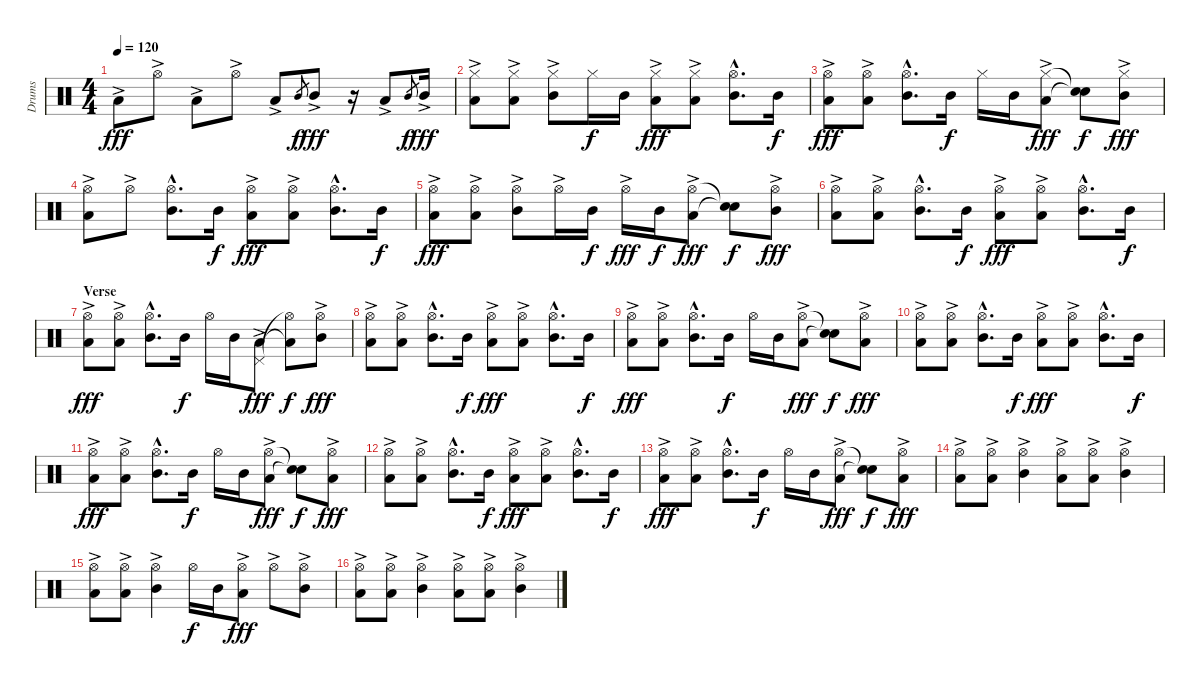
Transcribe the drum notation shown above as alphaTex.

\track ("Drums" "Drums") {instrument percussion}
\staff {score}
\articulation defaults
\ts (4 4)
\tempo 120
\clef neutral
\ks c "Low Floor Tom (hit)"{ac}.8{dy fff} "Hi-Hat (open)"{ac}.8 "Low Floor Tom (hit)"{ac}.8 "Hi-Hat (open)"{ac}.8 "Low Floor Tom (hit)"{ac}.8 "Mid Tom (hit)".8{gr dy f} "Mid Tom (hit)"{ac}.8{dy fff}
r.16 "Low Floor Tom (hit)"{ac}.8 "Mid Tom (hit)".8{gr dy f} "Mid Tom (hit)"{ac}.16{dy fff} |
("Hi-Hat (closed)"{ac} "Low Floor Tom (hit)").8 ("Hi-Hat (closed)"{ac} "Low Floor Tom (hit)").8 ("Hi-Hat (closed)"{ac} "Mid Tom (hit)").8 "Hi-Hat (closed)".16{dy f} "Mid Tom (hit)".16 ("Hi-Hat (closed)"{ac} "Low Floor Tom (hit)").8{dy fff} ("Hi-Hat (closed)"{ac} "Low Floor Tom (hit)").8 ("Hi-Hat (open)"{hac} "Mid Tom (hit)"{hac}).8{d} "Mid Tom (hit)".16{dy f} |
("Hi-Hat (open)"{ac} "Low Floor Tom (hit)").8{dy fff} ("Hi-Hat (open)"{ac} "Low Floor Tom (hit)").8 ("Hi-Hat (open)"{hac} "Mid Tom (hit)"{hac}).8{d} "Mid Tom (hit)".16{dy f} "Hi-Hat (closed)".16 "Mid Tom (hit)".16 ("Hi-Hat (closed)"{ac} "Low Floor Tom (hit)").8{dy fff} ("Snare (hit)"{t} "Snare (hit)"{t}).8{dy f} ("Hi-Hat (closed)"{ac} "Mid Tom (hit)").8{dy fff} |
("Hi-Hat (open)"{ac} "Low Floor Tom (hit)").8 "Hi-Hat (open)"{ac}.8 ("Hi-Hat (open)"{hac} "Mid Tom (hit)"{hac}).8{d} "Mid Tom (hit)".16{dy f} ("Hi-Hat (open)"{ac} "Low Floor Tom (hit)").8{dy fff} ("Hi-Hat (open)"{ac} "Low Floor Tom (hit)").8 ("Hi-Hat (open)"{hac} "Mid Tom (hit)"{hac}).8{d} "Mid Tom (hit)".16{dy f} |
("Hi-Hat (open)"{ac} "Low Floor Tom (hit)").8{dy fff} ("Hi-Hat (open)"{ac} "Low Floor Tom (hit)").8 ("Hi-Hat (open)"{ac} "Mid Tom (hit)").8 "Hi-Hat (open)"{ac}.16 "Mid Tom (hit)".16{dy f} "Hi-Hat (open)"{ac}.16{dy fff} "Mid Tom (hit)".16{dy f} ("Hi-Hat (open)"{ac} "Low Floor Tom (hit)").8{dy fff} ("Snare (hit)"{t} "Snare (hit)"{t}).8{dy f} ("Hi-Hat (open)"{ac} "Mid Tom (hit)").8{dy fff} |
("Hi-Hat (open)"{ac} "Low Floor Tom (hit)").8 ("Hi-Hat (open)"{ac} "Low Floor Tom (hit)").8 ("Hi-Hat (open)"{hac} "Mid Tom (hit)"{hac}).8{d} "Mid Tom (hit)".16{dy f} ("Hi-Hat (open)"{ac} "Low Floor Tom (hit)").8{dy fff} ("Hi-Hat (open)"{ac} "Low Floor Tom (hit)").8 ("Hi-Hat (open)"{hac} "Mid Tom (hit)"{hac}).8{d} "Mid Tom (hit)".16{dy f} |
\section ("" "Verse")
("Hi-Hat (open)"{ac} "Low Floor Tom (hit)").8{dy fff} ("Hi-Hat (open)"{ac} "Low Floor Tom (hit)").8 ("Hi-Hat (open)"{hac} "Mid Tom (hit)"{hac}).8{d} "Mid Tom (hit)".16{dy f} "Hi-Hat (open)".16 "Mid Tom (hit)".16 ("Pedal Hi-Hat (hit)"{ac} "Low Floor Tom (hit)").8{dy fff} ("Hi-Hat (open)"{t} "Low Floor Tom (hit)"{t}).8{dy f} ("Hi-Hat (open)"{ac} "Mid Tom (hit)").8{dy fff} |
("Hi-Hat (open)" "Low Floor Tom (hit)"{ac}).8 ("Hi-Hat (open)" "Low Floor Tom (hit)"{ac}).8 ("Hi-Hat (open)"{hac} "Mid Tom (hit)"{hac}).8{d} "Mid Tom (hit)".16{dy f} ("Hi-Hat (open)" "Low Floor Tom (hit)"{ac}).8{dy fff} ("Hi-Hat (open)" "Low Floor Tom (hit)"{ac}).8 ("Hi-Hat (open)"{hac} "Mid Tom (hit)"{hac}).8{d} "Mid Tom (hit)".16{dy f} |
("Hi-Hat (open)"{ac} "Low Floor Tom (hit)").8{dy fff} ("Hi-Hat (open)"{ac} "Low Floor Tom (hit)").8 ("Hi-Hat (open)"{hac} "Mid Tom (hit)"{hac}).8{d} "Mid Tom (hit)".16{dy f} "Hi-Hat (open)".16 "Mid Tom (hit)".16 ("Hi-Hat (open)"{ac} "Low Floor Tom (hit)").8{dy fff} ("Snare (hit)"{t} "Snare (hit)"{t}).8{dy f} ("Hi-Hat (open)"{ac} "Low Floor Tom (hit)").8{dy fff} |
("Hi-Hat (open)" "Low Floor Tom (hit)"{ac}).8 ("Hi-Hat (open)" "Low Floor Tom (hit)"{ac}).8 ("Hi-Hat (open)"{hac} "Mid Tom (hit)"{hac}).8{d} "Mid Tom (hit)".16{dy f} ("Hi-Hat (open)" "Low Floor Tom (hit)"{ac}).8{dy fff} ("Hi-Hat (open)" "Low Floor Tom (hit)"{ac}).8 ("Hi-Hat (open)"{hac} "Mid Tom (hit)"{hac}).8{d} "Mid Tom (hit)".16{dy f} |
("Hi-Hat (open)"{ac} "Low Floor Tom (hit)").8{dy fff} ("Hi-Hat (open)"{ac} "Low Floor Tom (hit)").8 ("Hi-Hat (open)"{hac} "Mid Tom (hit)"{hac}).8{d} "Mid Tom (hit)".16{dy f} "Hi-Hat (open)".16 "Mid Tom (hit)".16 ("Hi-Hat (open)"{ac} "Low Floor Tom (hit)").8{dy fff} ("Snare (hit)"{t} "Snare (hit)"{t}).8{dy f} ("Hi-Hat (open)"{ac} "Low Floor Tom (hit)").8{dy fff} |
("Hi-Hat (open)" "Low Floor Tom (hit)"{ac}).8 ("Hi-Hat (open)" "Low Floor Tom (hit)"{ac}).8 ("Hi-Hat (open)"{hac} "Mid Tom (hit)"{hac}).8{d} "Mid Tom (hit)".16{dy f} ("Hi-Hat (open)" "Low Floor Tom (hit)"{ac}).8{dy fff} ("Hi-Hat (open)" "Low Floor Tom (hit)"{ac}).8 ("Hi-Hat (open)"{hac} "Mid Tom (hit)"{hac}).8{d} "Mid Tom (hit)".16{dy f} |
("Hi-Hat (open)"{ac} "Low Floor Tom (hit)").8{dy fff} ("Hi-Hat (open)"{ac} "Low Floor Tom (hit)").8 ("Hi-Hat (open)"{hac} "Mid Tom (hit)"{hac}).8{d} "Mid Tom (hit)".16{dy f} "Hi-Hat (open)".16 "Mid Tom (hit)".16 ("Hi-Hat (open)"{ac} "Low Floor Tom (hit)").8{dy fff} ("Snare (hit)"{t} "Snare (hit)"{t}).8{dy f} ("Hi-Hat (open)"{ac} "Low Floor Tom (hit)").8{dy fff} |
("Hi-Hat (open)"{ac} "Low Floor Tom (hit)").8 ("Hi-Hat (open)"{ac} "Low Floor Tom (hit)").8 ("Hi-Hat (open)"{ac} "Mid Tom (hit)").4 ("Hi-Hat (open)"{ac} "Low Floor Tom (hit)").8 ("Hi-Hat (open)"{ac} "Low Floor Tom (hit)").8 ("Hi-Hat (open)"{ac} "Mid Tom (hit)").4 |
("Hi-Hat (open)"{ac} "Low Floor Tom (hit)").8 ("Hi-Hat (open)"{ac} "Low Floor Tom (hit)").8 ("Hi-Hat (open)"{ac} "Mid Tom (hit)").4 "Hi-Hat (open)".16{dy f} "Mid Tom (hit)".16 ("Hi-Hat (open)"{ac} "Low Floor Tom (hit)").8{dy fff} "Hi-Hat (open)"{ac}.8 ("Hi-Hat (open)"{ac} "Mid Tom (hit)").8 |
("Hi-Hat (open)"{ac} "Low Floor Tom (hit)").8 ("Hi-Hat (open)"{ac} "Low Floor Tom (hit)").8 ("Hi-Hat (open)"{ac} "Mid Tom (hit)").4 ("Hi-Hat (open)"{ac} "Low Floor Tom (hit)").8 ("Hi-Hat (open)"{ac} "Low Floor Tom (hit)").8 ("Hi-Hat (open)"{ac} "Mid Tom (hit)").4
